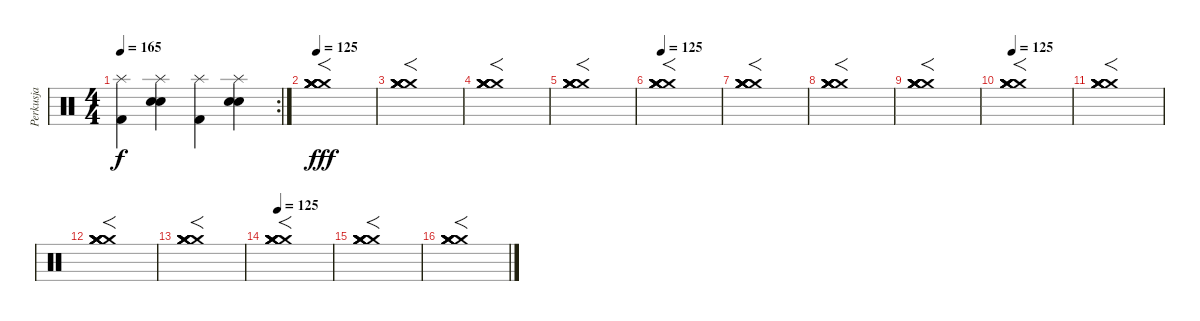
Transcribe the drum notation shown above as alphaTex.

\track ("Perkusja" "Perkusja") {instrument percussion}
\staff {score}
\articulation defaults
\rc 2
\ts (4 4)
\tempo 165
\clef neutral
\ks c
("Splash (hit)" "Kick (hit) 2").4{dy f} ("Splash (hit)" "Snare (hit) 2" "Snare (hit) 2").4 ("Splash (hit)" "Kick (hit) 2").4 ("Splash (hit)" "Snare (hit) 2" "Snare (hit) 2").4 |
\tempo 125
("Crash medium (hit)" "Crash medium (hit)" "Crash medium (hit)" "Crash medium (hit)" "Crash medium (hit)" "Crash medium (hit)").1{f dy fff balance 12} |
("Crash medium (hit)" "Crash medium (hit)" "Crash medium (hit)" "Crash medium (hit)" "Crash medium (hit)" "Crash medium (hit)").1{f} |
("Crash medium (hit)" "Crash medium (hit)" "Crash medium (hit)" "Crash medium (hit)" "Crash medium (hit)" "Crash medium (hit)").1{f} |
("Crash medium (hit)" "Crash medium (hit)" "Crash medium (hit)" "Crash medium (hit)" "Crash medium (hit)" "Crash medium (hit)").1{f} |
\tempo 125
("Crash medium (hit)" "Crash medium (hit)" "Crash medium (hit)" "Crash medium (hit)" "Crash medium (hit)" "Crash medium (hit)").1{f balance 12} |
("Crash medium (hit)" "Crash medium (hit)" "Crash medium (hit)" "Crash medium (hit)" "Crash medium (hit)" "Crash medium (hit)").1{f} |
("Crash medium (hit)" "Crash medium (hit)" "Crash medium (hit)" "Crash medium (hit)" "Crash medium (hit)" "Crash medium (hit)").1{f} |
("Crash medium (hit)" "Crash medium (hit)" "Crash medium (hit)" "Crash medium (hit)" "Crash medium (hit)" "Crash medium (hit)").1{f} |
\tempo 125
("Crash medium (hit)" "Crash medium (hit)" "Crash medium (hit)" "Crash medium (hit)" "Crash medium (hit)" "Crash medium (hit)").1{f balance 12} |
("Crash medium (hit)" "Crash medium (hit)" "Crash medium (hit)" "Crash medium (hit)" "Crash medium (hit)" "Crash medium (hit)").1{f} |
("Crash medium (hit)" "Crash medium (hit)" "Crash medium (hit)" "Crash medium (hit)" "Crash medium (hit)" "Crash medium (hit)").1{f} |
("Crash medium (hit)" "Crash medium (hit)" "Crash medium (hit)" "Crash medium (hit)" "Crash medium (hit)" "Crash medium (hit)").1{f} |
\tempo 125
("Crash medium (hit)" "Crash medium (hit)" "Crash medium (hit)" "Crash medium (hit)" "Crash medium (hit)" "Crash medium (hit)").1{f balance 12} |
("Crash medium (hit)" "Crash medium (hit)" "Crash medium (hit)" "Crash medium (hit)" "Crash medium (hit)" "Crash medium (hit)").1{f} |
("Crash medium (hit)" "Crash medium (hit)" "Crash medium (hit)" "Crash medium (hit)" "Crash medium (hit)" "Crash medium (hit)").1{f}
